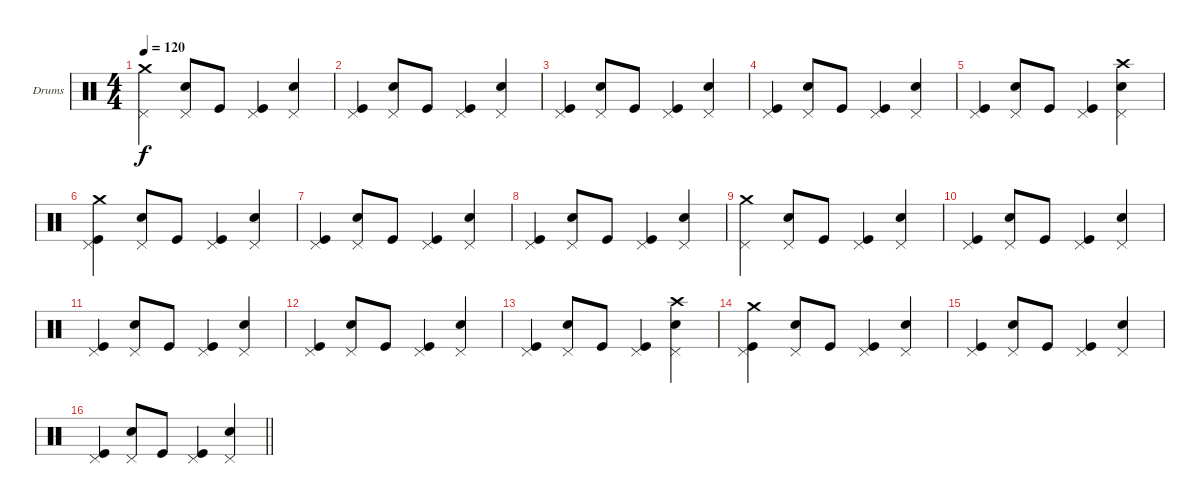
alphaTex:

\bracketExtendMode groupsimilarinstruments
\firstSystemTrackNameOrientation horizontal
\otherSystemsTrackNameOrientation horizontal
\track ("Drumkit" "Drums") {instrument percussion}
\staff {score}
\articulation defaults
\ts (4 4)
\tempo 120
\clef neutral
\ks c
("Crash medium (hit)" "Pedal Hi-Hat (hit)").4{dy f} ("Snare (hit) 2" "Pedal Hi-Hat (hit)").8 "Kick (hit)".8 ("Kick (hit)" "Pedal Hi-Hat (hit)").4 ("Snare (hit) 2" "Pedal Hi-Hat (hit)").4 |
("Kick (hit)" "Pedal Hi-Hat (hit)").4 ("Snare (hit) 2" "Pedal Hi-Hat (hit)").8 "Kick (hit)".8 ("Kick (hit)" "Pedal Hi-Hat (hit)").4 ("Snare (hit) 2" "Pedal Hi-Hat (hit)").4 |
("Kick (hit)" "Pedal Hi-Hat (hit)").4 ("Snare (hit) 2" "Pedal Hi-Hat (hit)").8 "Kick (hit)".8 ("Kick (hit)" "Pedal Hi-Hat (hit)").4 ("Snare (hit) 2" "Pedal Hi-Hat (hit)").4 |
("Kick (hit)" "Pedal Hi-Hat (hit)").4 ("Snare (hit) 2" "Pedal Hi-Hat (hit)").8 "Kick (hit)".8 ("Kick (hit)" "Pedal Hi-Hat (hit)").4 ("Snare (hit) 2" "Pedal Hi-Hat (hit)").4 |
("Kick (hit)" "Pedal Hi-Hat (hit)").4 ("Snare (hit) 2" "Pedal Hi-Hat (hit)").8 "Kick (hit)".8 ("Kick (hit)" "Pedal Hi-Hat (hit)").4 ("Snare (hit) 2" "Crash high (hit)" "Pedal Hi-Hat (hit)").4 |
("Kick (hit)" "Crash medium (hit)" "Pedal Hi-Hat (hit)").4 ("Snare (hit) 2" "Pedal Hi-Hat (hit)").8 "Kick (hit)".8 ("Kick (hit)" "Pedal Hi-Hat (hit)").4 ("Snare (hit) 2" "Pedal Hi-Hat (hit)").4 |
("Kick (hit)" "Pedal Hi-Hat (hit)").4 ("Snare (hit) 2" "Pedal Hi-Hat (hit)").8 "Kick (hit)".8 ("Kick (hit)" "Pedal Hi-Hat (hit)").4 ("Snare (hit) 2" "Pedal Hi-Hat (hit)").4 |
("Kick (hit)" "Pedal Hi-Hat (hit)").4 ("Snare (hit) 2" "Pedal Hi-Hat (hit)").8 "Kick (hit)".8 ("Kick (hit)" "Pedal Hi-Hat (hit)").4 ("Snare (hit) 2" "Pedal Hi-Hat (hit)").4 |
("Crash medium (hit)" "Pedal Hi-Hat (hit)").4 ("Snare (hit) 2" "Pedal Hi-Hat (hit)").8 "Kick (hit)".8 ("Kick (hit)" "Pedal Hi-Hat (hit)").4 ("Snare (hit) 2" "Pedal Hi-Hat (hit)").4 |
("Kick (hit)" "Pedal Hi-Hat (hit)").4 ("Snare (hit) 2" "Pedal Hi-Hat (hit)").8 "Kick (hit)".8 ("Kick (hit)" "Pedal Hi-Hat (hit)").4 ("Snare (hit) 2" "Pedal Hi-Hat (hit)").4 |
("Kick (hit)" "Pedal Hi-Hat (hit)").4 ("Snare (hit) 2" "Pedal Hi-Hat (hit)").8 "Kick (hit)".8 ("Kick (hit)" "Pedal Hi-Hat (hit)").4 ("Snare (hit) 2" "Pedal Hi-Hat (hit)").4 |
("Kick (hit)" "Pedal Hi-Hat (hit)").4 ("Snare (hit) 2" "Pedal Hi-Hat (hit)").8 "Kick (hit)".8 ("Kick (hit)" "Pedal Hi-Hat (hit)").4 ("Snare (hit) 2" "Pedal Hi-Hat (hit)").4 |
("Kick (hit)" "Pedal Hi-Hat (hit)").4 ("Snare (hit) 2" "Pedal Hi-Hat (hit)").8 "Kick (hit)".8 ("Kick (hit)" "Pedal Hi-Hat (hit)").4 ("Snare (hit) 2" "Crash high (hit)" "Pedal Hi-Hat (hit)").4 |
("Kick (hit)" "Crash medium (hit)" "Pedal Hi-Hat (hit)").4 ("Snare (hit) 2" "Pedal Hi-Hat (hit)").8 "Kick (hit)".8 ("Kick (hit)" "Pedal Hi-Hat (hit)").4 ("Snare (hit) 2" "Pedal Hi-Hat (hit)").4 |
("Kick (hit)" "Pedal Hi-Hat (hit)").4 ("Snare (hit) 2" "Pedal Hi-Hat (hit)").8 "Kick (hit)".8 ("Kick (hit)" "Pedal Hi-Hat (hit)").4 ("Snare (hit) 2" "Pedal Hi-Hat (hit)").4 |
\barLineRight lightlight
("Kick (hit)" "Pedal Hi-Hat (hit)").4 ("Snare (hit) 2" "Pedal Hi-Hat (hit)").8 "Kick (hit)".8 ("Kick (hit)" "Pedal Hi-Hat (hit)").4 ("Snare (hit) 2" "Pedal Hi-Hat (hit)").4
